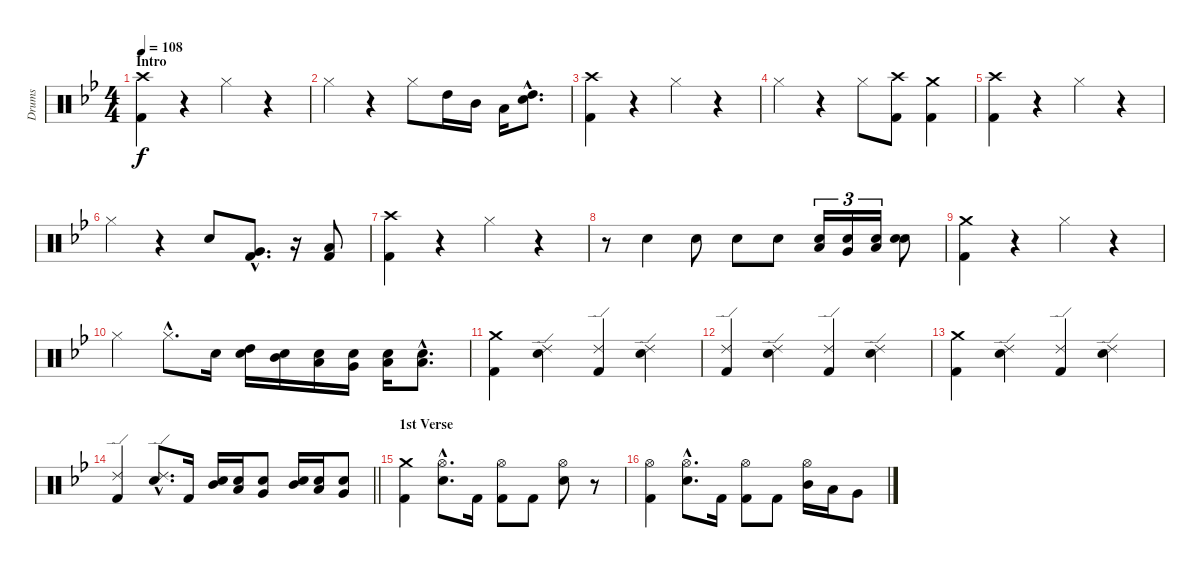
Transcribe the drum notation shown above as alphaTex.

\track ("Drums" "Drums") {instrument percussion}
\staff {score}
\articulation defaults
\ts (4 4)
\section ("" "Intro")
\tempo 108
\clef neutral
\ks gminor
("Crash high (hit)" "Kick (hit) 2").4{dy f} r.4 "Hi-Hat (closed)".4 r.4 |
"Hi-Hat (closed)".4 r.4 "Hi-Hat (closed)".8 "High Tom (hit)".16 "Mid Tom (hit)".16 "Low Tom (hit)".16 ("Snare (hit) 2"{hac} "High Tom (hit)"{hac}).8{d} |
("Crash high (hit)" "Kick (hit) 2").4 r.4 "Hi-Hat (closed)".4 r.4 |
"Hi-Hat (closed)".4 r.4 "Hi-Hat (closed)".8 ("Crash high (hit)" "Kick (hit) 2").8 ("Crash medium (hit)" "Kick (hit) 2").4 |
("Crash high (hit)" "Kick (hit) 2").4 r.4 "Hi-Hat (closed)".4 r.4 |
"Hi-Hat (closed)".4 r.4 "Snare (hit) 2".8 ("Very Low Tom (hit)"{hac} "Kick (hit) 2"{hac}).8{d} r.16 ("Low Floor Tom (hit)" "Kick (hit) 2").8 |
("Crash high (hit)" "Kick (hit) 2").4 r.4 "Hi-Hat (closed)".4 r.4 |
r.8 "Snare (hit) 2".4 "Snare (hit) 2".8 "Snare (hit) 2".8 "Snare (hit) 2".8 ("Snare (hit) 2" "Low Tom (hit)").16{tu (3 2)} ("Snare (hit) 2" "Very Low Tom (hit)").16{tu (3 2)} ("Snare (hit) 2" "Low Floor Tom (hit)").16{tu (3 2)} ("Snare (hit) 2" "Snare (hit) 2").8 |
("Crash medium (hit)" "Kick (hit) 2").4 r.4 "Hi-Hat (closed)".4 r.4 |
"Hi-Hat (closed)".4 "Hi-Hat (closed)"{hac}.8{d} "Snare (hit) 2".16 ("Snare (hit) 2" "High Tom (hit)").16 ("Snare (hit) 2" "Mid Tom (hit)").16 ("Snare (hit) 2" "Low Tom (hit)").16 ("Snare (hit) 2" "Very Low Tom (hit)").16 ("Snare (hit) 2" "Low Floor Tom (hit)").16 ("Snare (hit) 2"{hac} "Low Floor Tom (hit)"{hac}).8{d} |
("Crash medium (hit)" "Kick (hit) 2").4 ("Ride (edge) 2" "Snare (hit) 2").4 ("Ride (edge) 2" "Kick (hit) 2").4 ("Ride (edge) 2" "Snare (hit) 2").4 |
("Ride (edge) 2" "Kick (hit) 2").4 ("Ride (edge) 2" "Snare (hit) 2").4 ("Ride (edge) 2" "Kick (hit) 2").4 ("Ride (edge) 2" "Snare (hit) 2").4 |
("Crash medium (hit)" "Kick (hit) 2").4 ("Ride (edge) 2" "Snare (hit) 2").4 ("Ride (edge) 2" "Kick (hit) 2").4 ("Ride (edge) 2" "Snare (hit) 2").4 |
\barLineRight lightlight
("Ride (edge) 2" "Kick (hit) 2").4 ("Ride (edge) 2"{hac} "Snare (hit) 2"{hac}).8{d} "Kick (hit) 2".16 ("Snare (hit) 2" "Mid Tom (hit)").16 ("Snare (hit) 2" "Low Tom (hit)").16 ("Snare (hit) 2" "Very Low Tom (hit)").8 ("Snare (hit) 2" "Mid Tom (hit)").16 ("Snare (hit) 2" "Low Tom (hit)").16 ("Snare (hit) 2" "Very Low Tom (hit)").8 |
\section ("" "1st Verse")
("Crash medium (hit)" "Kick (hit) 2").4 ("Hi-Hat (open)"{hac} "Snare (hit) 2"{hac}).8{d} "Kick (hit) 2".16 ("Hi-Hat (open)" "Kick (hit) 2").8 "Kick (hit) 2".8 ("Hi-Hat (open)" "Snare (hit) 2").8 r.8 |
("Hi-Hat (open)" "Kick (hit) 2").4 ("Hi-Hat (open)"{hac} "Snare (hit) 2"{hac}).8{d} "Kick (hit) 2".16 ("Hi-Hat (open)" "Kick (hit) 2").8 "Kick (hit) 2".8 ("Hi-Hat (open)" "Mid Tom (hit)").16 "Low Tom (hit)".16 "Very Low Tom (hit)".8
